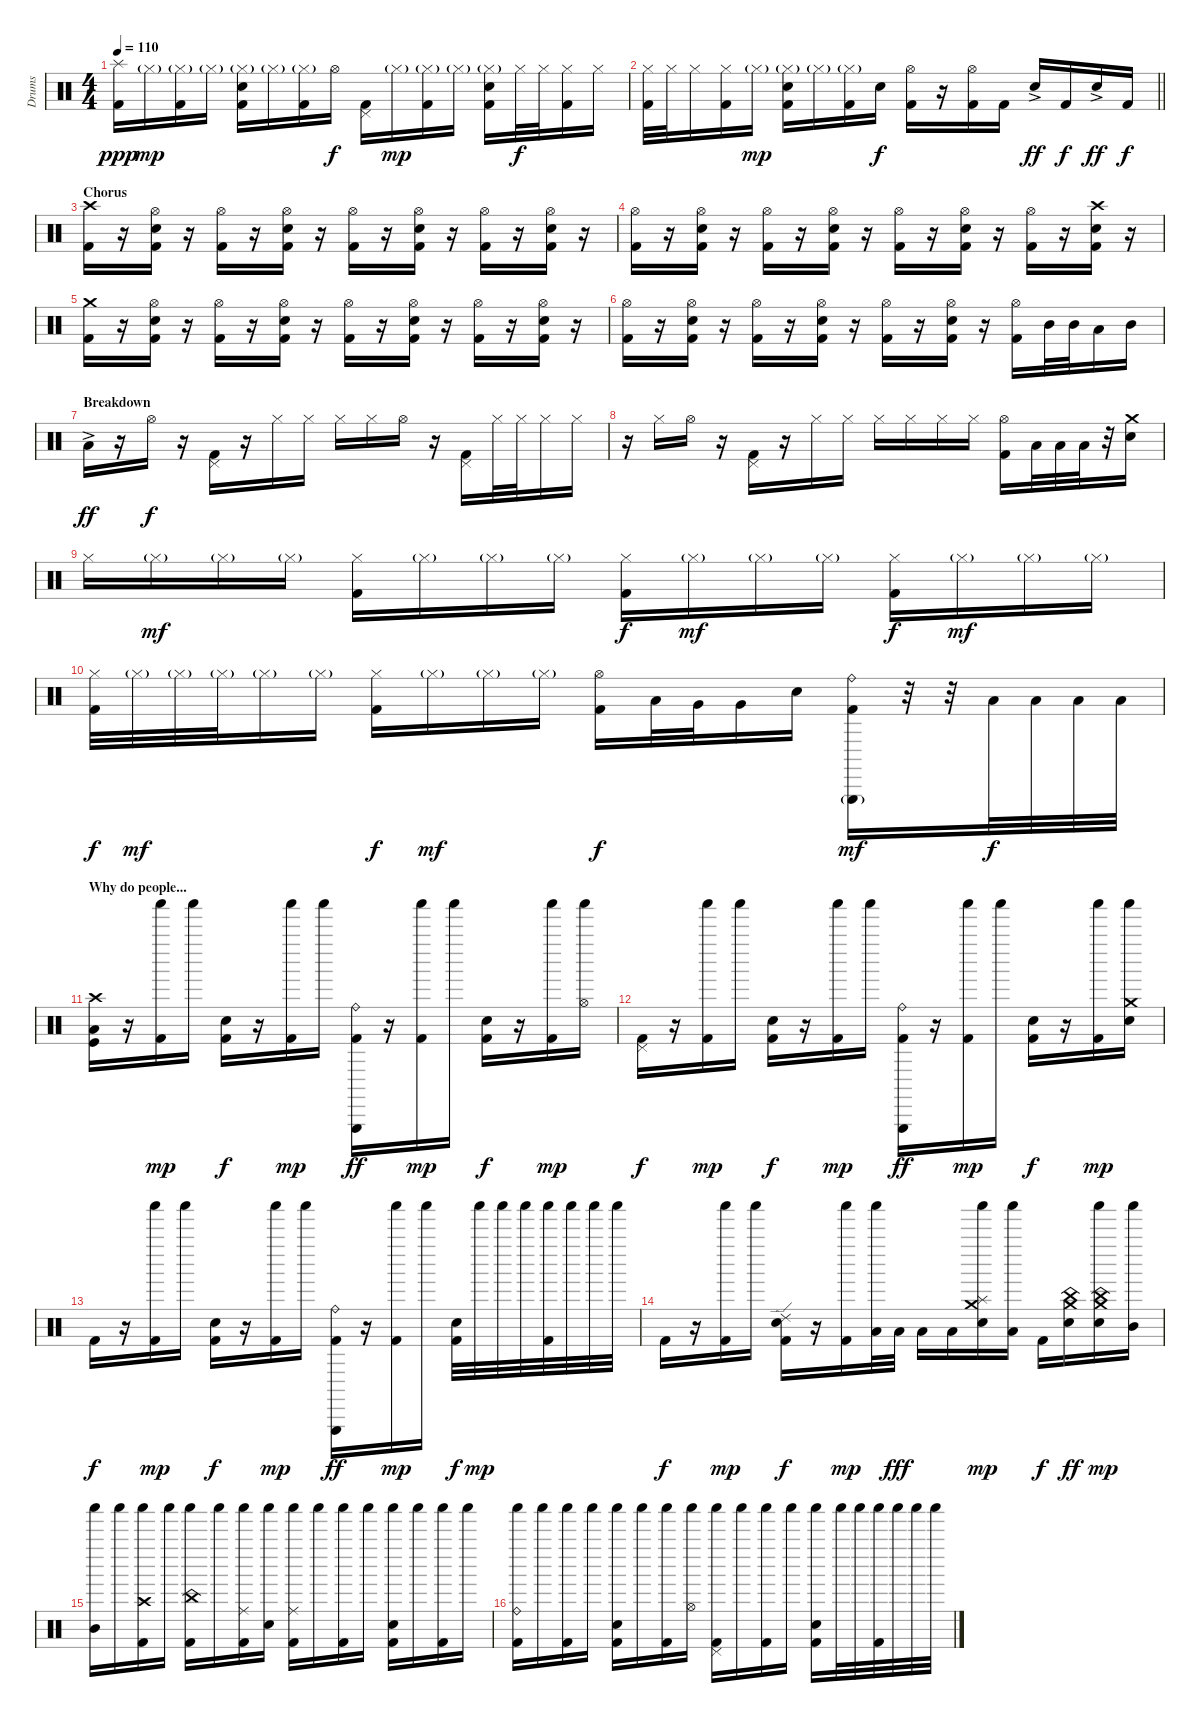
\track ("Drums" "Drums") {instrument percussion}
\staff {score}
\articulation defaults
\ts (4 4)
\tempo 110
\clef neutral
\ks c
("Splash (hit)" "Kick (hit) 2").16{dy ppp} "Hi-Hat (closed)"{g}.16{dy mp} ("Hi-Hat (closed)"{g} "Kick (hit) 2").16 "Hi-Hat (closed)"{g}.16 ("Hi-Hat (closed)"{g} "Electric Snare (hit)" "Kick (hit) 2").16 "Hi-Hat (closed)"{g}.16 ("Hi-Hat (closed)"{g} "Kick (hit) 2").16 "Hi-Hat (open)".16{dy f} ("Pedal Hi-Hat (hit)" "Kick (hit) 2").16 "Hi-Hat (closed)"{g}.16{dy mp} ("Hi-Hat (closed)"{g} "Kick (hit) 2").16 "Hi-Hat (closed)"{g}.16 ("Hi-Hat (closed)"{g} "Electric Snare (hit)" "Kick (hit) 2").16 "Hi-Hat (closed)".32{dy f} "Hi-Hat (closed)".32 ("Hi-Hat (closed)" "Kick (hit) 2").16 "Hi-Hat (closed)".16 |
\barLineRight lightlight
("Hi-Hat (closed)" "Kick (hit) 2").32 "Hi-Hat (closed)".32 "Hi-Hat (closed)".16 ("Hi-Hat (closed)" "Kick (hit) 2").16 "Hi-Hat (closed)"{g}.16{dy mp} ("Hi-Hat (closed)"{g} "Electric Snare (hit)" "Kick (hit) 2").16 "Hi-Hat (closed)"{g}.16 ("Hi-Hat (closed)"{g} "Kick (hit) 2").16 "Electric Snare (hit)".16{dy f} ("Hi-Hat (open)" "Kick (hit) 2").16 r.16 ("Hi-Hat (open)" "Kick (hit) 2").16 "Kick (hit) 2".16 "Electric Snare (hit)"{ac}.16{dy ff} "Kick (hit) 2".16{dy f} "Electric Snare (hit)"{ac}.16{dy ff} "Kick (hit) 2".16{dy f} |
\section ("" "Chorus")
("Crash high (hit)" "Kick (hit) 2").16 r.16 ("Hi-Hat (open)" "Electric Snare (hit)" "Kick (hit) 2").16 r.16 ("Hi-Hat (open)" "Kick (hit) 2").16 r.16 ("Hi-Hat (open)" "Electric Snare (hit)" "Kick (hit) 2").16 r.16 ("Hi-Hat (open)" "Kick (hit) 2").16 r.16 ("Hi-Hat (open)" "Electric Snare (hit)" "Kick (hit) 2").16 r.16 ("Hi-Hat (open)" "Kick (hit) 2").16 r.16 ("Hi-Hat (open)" "Electric Snare (hit)" "Kick (hit) 2").16 r.16 |
("Hi-Hat (open)" "Kick (hit) 2").16 r.16 ("Hi-Hat (open)" "Electric Snare (hit)" "Kick (hit) 2").16 r.16 ("Hi-Hat (open)" "Kick (hit) 2").16 r.16 ("Hi-Hat (open)" "Electric Snare (hit)" "Kick (hit) 2").16 r.16 ("Hi-Hat (open)" "Kick (hit) 2").16 r.16 ("Hi-Hat (open)" "Electric Snare (hit)" "Kick (hit) 2").16 r.16 ("Hi-Hat (open)" "Kick (hit) 2").16 r.16 ("Crash high (hit)" "Electric Snare (hit)" "Kick (hit) 2").16 r.16 |
("Crash medium (hit)" "Kick (hit) 2").16 r.16 ("Hi-Hat (open)" "Electric Snare (hit)" "Kick (hit) 2").16 r.16 ("Hi-Hat (open)" "Kick (hit) 2").16 r.16 ("Hi-Hat (open)" "Electric Snare (hit)" "Kick (hit) 2").16 r.16 ("Hi-Hat (open)" "Kick (hit) 2").16 r.16 ("Hi-Hat (open)" "Electric Snare (hit)" "Kick (hit) 2").16 r.16 ("Hi-Hat (open)" "Kick (hit) 2").16 r.16 ("Hi-Hat (open)" "Electric Snare (hit)" "Kick (hit) 2").16 r.16 |
("Hi-Hat (open)" "Kick (hit) 2").16 r.16 ("Hi-Hat (open)" "Electric Snare (hit)" "Kick (hit) 2").16 r.16 ("Hi-Hat (open)" "Kick (hit) 2").16 r.16 ("Hi-Hat (open)" "Electric Snare (hit)" "Kick (hit) 2").16 r.16 ("Hi-Hat (open)" "Kick (hit) 2").16 r.16 ("Hi-Hat (open)" "Electric Snare (hit)" "Kick (hit) 2").16 r.16 ("Hi-Hat (open)" "Kick (hit) 2").16 "Mid Tom (hit)".32 "Mid Tom (hit)".32 "Low Tom (hit)".16 "Mid Tom (hit)".16 |
\section ("" "Breakdown")
"Low Tom (hit)"{ac}.16{dy ff} r.16 "Hi-Hat (open)".16{dy f} r.16 ("Pedal Hi-Hat (hit)" "Kick (hit) 2").16 r.16 "Hi-Hat (closed)".16 "Hi-Hat (closed)".16 "Hi-Hat (closed)".16 "Hi-Hat (closed)".16 "Hi-Hat (open)".16 r.16 ("Pedal Hi-Hat (hit)" "Kick (hit) 2").16 "Hi-Hat (closed)".32 "Hi-Hat (closed)".32 "Hi-Hat (closed)".16 "Hi-Hat (closed)".16 |
r.16 "Hi-Hat (closed)".16 "Hi-Hat (open)".16 r.16 ("Pedal Hi-Hat (hit)" "Kick (hit) 2").16 r.16 "Hi-Hat (closed)".16 "Hi-Hat (closed)".16 "Hi-Hat (closed)".16 "Hi-Hat (closed)".16 "Hi-Hat (closed)".16 "Hi-Hat (closed)".16 ("Hi-Hat (open)" "Kick (hit) 2").16 "Low Floor Tom (hit)".32 "Low Floor Tom (hit)".32 "Low Floor Tom (hit)".32 r.32 ("Crash medium (hit)" "Electric Snare (hit)").16 |
"Hi-Hat (closed)".16 "Hi-Hat (closed)"{g}.16{dy mf} "Hi-Hat (closed)"{g}.16 "Hi-Hat (closed)"{g}.16 ("Hi-Hat (closed)" "Kick (hit) 2").16 "Hi-Hat (closed)"{g}.16 "Hi-Hat (closed)"{g}.16 "Hi-Hat (closed)"{g}.16 ("Hi-Hat (closed)" "Kick (hit) 2").16{dy f} "Hi-Hat (closed)"{g}.16{dy mf} "Hi-Hat (closed)"{g}.16 "Hi-Hat (closed)"{g}.16 ("Hi-Hat (closed)" "Kick (hit) 2").16{dy f} "Hi-Hat (closed)"{g}.16{dy mf} "Hi-Hat (closed)"{g}.16 "Hi-Hat (closed)"{g}.16 |
("Hi-Hat (closed)" "Kick (hit) 2").32{dy f} "Hi-Hat (closed)"{g}.32{dy mf} "Hi-Hat (closed)"{g}.32 "Hi-Hat (closed)"{g}.32 "Hi-Hat (closed)"{g}.16 "Hi-Hat (closed)"{g}.16 ("Hi-Hat (closed)" "Kick (hit) 2").16{dy f} "Hi-Hat (closed)"{g}.16{dy mf} "Hi-Hat (closed)"{g}.16 "Hi-Hat (closed)"{g}.16 ("Hi-Hat (open)" "Kick (hit) 2").16{dy f} "Low Tom (hit)".32 "Very Low Tom (hit)".32 "Very Low Tom (hit)".16 "Electric Snare (hit)".16 ("Triangle (hit)"{g} "Ride (bell)" "Kick (hit) 2").16{dy mf} r.32 r.32 "Low Tom (hit)".32{dy f} "Low Floor Tom (hit)".32 "Low Floor Tom (hit)".32 "Low Floor Tom (hit)".32 |
\section ("" "Why do people...")
("Crash high (hit)" "Low Floor Tom (hit)" "Kick (hit)").16 r.16 ("Shaker (hit)" "Kick (hit) 2").16{dy mp} "Shaker (hit)".16 ("Electric Snare (hit)" "Kick (hit) 2").16{dy f} r.16 ("Shaker (hit)" "Kick (hit) 2").16{dy mp} "Shaker (hit)".16 ("Triangle (hit)" "Ride (bell)" "Kick (hit) 2").16{dy ff} r.16 ("Shaker (hit)" "Kick (hit) 2").16{dy mp} "Shaker (hit)".16 ("Electric Snare (hit)" "Kick (hit) 2").16{dy f} r.16 ("Shaker (hit)" "Kick (hit) 2").16{dy mp} ("Hi-Hat (open)" "Shaker (hit)").16 |
("Pedal Hi-Hat (hit)" "Kick (hit) 2").16{dy f} r.16 ("Shaker (hit)" "Kick (hit) 2").16{dy mp} "Shaker (hit)".16 ("Electric Snare (hit)" "Kick (hit) 2").16{dy f} r.16 ("Shaker (hit)" "Kick (hit) 2").16{dy mp} "Shaker (hit)".16 ("Triangle (hit)" "Ride (bell)" "Kick (hit) 2").16{dy ff} r.16 ("Shaker (hit)" "Kick (hit) 2").16{dy mp} "Shaker (hit)".16 ("Electric Snare (hit)" "Kick (hit) 2").16{dy f} r.16 ("Shaker (hit)" "Kick (hit) 2").16{dy mp} ("Crash medium (hit)" "Electric Snare (hit)" "Shaker (hit)").16 |
"Kick (hit) 2".16{dy f} r.16 ("Shaker (hit)" "Kick (hit) 2").16{dy mp} "Shaker (hit)".16 ("Electric Snare (hit)" "Kick (hit) 2").16{dy f} r.16 ("Shaker (hit)" "Kick (hit) 2").16{dy mp} "Shaker (hit)".16 ("Triangle (hit)" "Ride (bell)" "Kick (hit) 2").16{dy ff} r.16 ("Shaker (hit)" "Kick (hit) 2").16{dy mp} "Shaker (hit)".16 ("Electric Snare (hit)" "Kick (hit) 2").32{dy f} "Shaker (hit)".32{dy mp balance 1} "Shaker (hit)".32{balance 7} "Shaker (hit)".32{balance 1} ("Shaker (hit)" "Kick (hit) 2").32{balance 7} "Shaker (hit)".32{balance 1} "Shaker (hit)".32{balance 7} "Shaker (hit)".32{balance 1} |
"Kick (hit) 2".16{dy f balance 7} r.16 ("Shaker (hit)" "Kick (hit) 2").16{dy mp} "Shaker (hit)".16 ("Ride (edge) 2" "Electric Snare (hit)" "Kick (hit) 2").16{dy f} r.16 ("Shaker (hit)" "Kick (hit) 2").16{dy mp} ("Low Floor Tom (hit)" "Shaker (hit)").32 "Low Floor Tom (hit)".32{dy fff} "Low Floor Tom (hit)".16 "Low Floor Tom (hit)".16 ("Crash medium (hit)" "Splash (hit)" "Electric Snare (hit)" "Shaker (hit)").16{dy mp} ("Low Floor Tom (hit)" "Shaker (hit)").16 "Kick (hit) 2".16{dy f} ("Crash medium (hit)" "China (hit)" "Electric Snare (hit)").16{dy ff} ("Crash medium (hit)" "China (hit)" "Electric Snare (hit)" "Shaker (hit)").16{dy mp} ("Mid Tom (hit)" "Shaker (hit)").16 |
("Mid Tom (hit)" "Shaker (hit)").16 "Shaker (hit)".16 ("Crash high (hit)" "Shaker (hit)" "Kick (hit) 2").16 "Shaker (hit)".16 ("China (hit)" "Shaker (hit)" "Kick (hit) 2").16 "Shaker (hit)".16 ("Ride (middle)" "Shaker (hit)" "Kick (hit) 2").16 ("Electric Snare (hit)" "Shaker (hit)").16 ("Ride (middle)" "Shaker (hit)" "Kick (hit) 2").16 "Shaker (hit)".16 ("Shaker (hit)" "Kick (hit) 2").16 "Shaker (hit)".16 ("Electric Snare (hit)" "Shaker (hit)" "Kick (hit) 2").16 "Shaker (hit)".16 ("Shaker (hit)" "Kick (hit) 2").16 "Shaker (hit)".16 |
("Ride (bell)" "Shaker (hit)" "Kick (hit) 2").16 "Shaker (hit)".16 ("Shaker (hit)" "Kick (hit) 2").16 "Shaker (hit)".16 ("Electric Snare (hit)" "Shaker (hit)" "Kick (hit) 2").16 "Shaker (hit)".16 ("Shaker (hit)" "Kick (hit) 2").16 ("Hi-Hat (open)" "Shaker (hit)").16 ("Pedal Hi-Hat (hit)" "Shaker (hit)" "Kick (hit) 2").16 "Shaker (hit)".16 ("Shaker (hit)" "Kick (hit) 2").16 "Shaker (hit)".16 ("Electric Snare (hit)" "Shaker (hit)" "Kick (hit) 2").16 "Shaker (hit)".32 "Shaker (hit)".32 ("Shaker (hit)" "Kick (hit) 2").32 "Shaker (hit)".32 "Shaker (hit)".32 "Shaker (hit)".32
